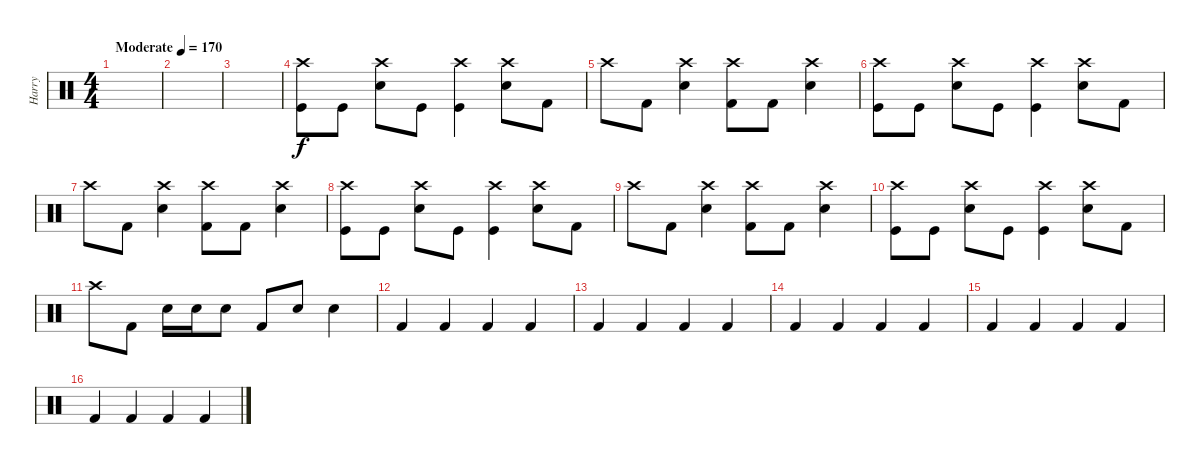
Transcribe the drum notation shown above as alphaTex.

\track ("Harry" "Harry") {instrument percussion}
\staff {score}
\articulation defaults
\ts (4 4)
\tempo (170 "Moderate")
\clef neutral
\ks c
|
|
|
("Kick (hit)" "Crash high (hit)").8 "Kick (hit)".8 ("Snare (hit) 2" "Crash high (hit)").8 "Kick (hit)".8 ("Kick (hit)" "Crash high (hit)").4 ("Snare (hit) 2" "Crash high (hit)").8 "Kick (hit) 2".8 |
"Crash high (hit)".8 "Kick (hit) 2".8 ("Snare (hit) 2" "Crash high (hit)").4 ("Kick (hit) 2" "Crash high (hit)").8 "Kick (hit) 2".8 ("Snare (hit) 2" "Crash high (hit)").4 |
("Kick (hit)" "Crash high (hit)").8 "Kick (hit)".8 ("Snare (hit) 2" "Crash high (hit)").8 "Kick (hit)".8 ("Kick (hit)" "Crash high (hit)").4 ("Snare (hit) 2" "Crash high (hit)").8 "Kick (hit) 2".8 |
"Crash high (hit)".8 "Kick (hit) 2".8 ("Snare (hit) 2" "Crash high (hit)").4 ("Kick (hit) 2" "Crash high (hit)").8 "Kick (hit) 2".8 ("Snare (hit) 2" "Crash high (hit)").4 |
("Kick (hit)" "Crash high (hit)").8 "Kick (hit)".8 ("Snare (hit) 2" "Crash high (hit)").8 "Kick (hit)".8 ("Kick (hit)" "Crash high (hit)").4 ("Snare (hit) 2" "Crash high (hit)").8 "Kick (hit) 2".8 |
"Crash high (hit)".8 "Kick (hit) 2".8 ("Snare (hit) 2" "Crash high (hit)").4 ("Kick (hit) 2" "Crash high (hit)").8 "Kick (hit) 2".8 ("Snare (hit) 2" "Crash high (hit)").4 |
("Kick (hit)" "Crash high (hit)").8 "Kick (hit)".8 ("Snare (hit) 2" "Crash high (hit)").8 "Kick (hit)".8 ("Kick (hit)" "Crash high (hit)").4 ("Snare (hit) 2" "Crash high (hit)").8 "Kick (hit) 2".8 |
"Crash high (hit)".8 "Kick (hit) 2".8 "Snare (hit) 2".16 "Snare (hit) 2".16 "Snare (hit) 2".8 "Kick (hit) 2".8 "Snare (hit) 2".8 "Snare (hit) 2".4 |
"Kick (hit) 2".4 "Kick (hit) 2".4 "Kick (hit) 2".4 "Kick (hit) 2".4 |
"Kick (hit) 2".4 "Kick (hit) 2".4 "Kick (hit) 2".4 "Kick (hit) 2".4 |
"Kick (hit) 2".4 "Kick (hit) 2".4 "Kick (hit) 2".4 "Kick (hit) 2".4 |
"Kick (hit) 2".4 "Kick (hit) 2".4 "Kick (hit) 2".4 "Kick (hit) 2".4 |
"Kick (hit) 2".4 "Kick (hit) 2".4 "Kick (hit) 2".4 "Kick (hit) 2".4
